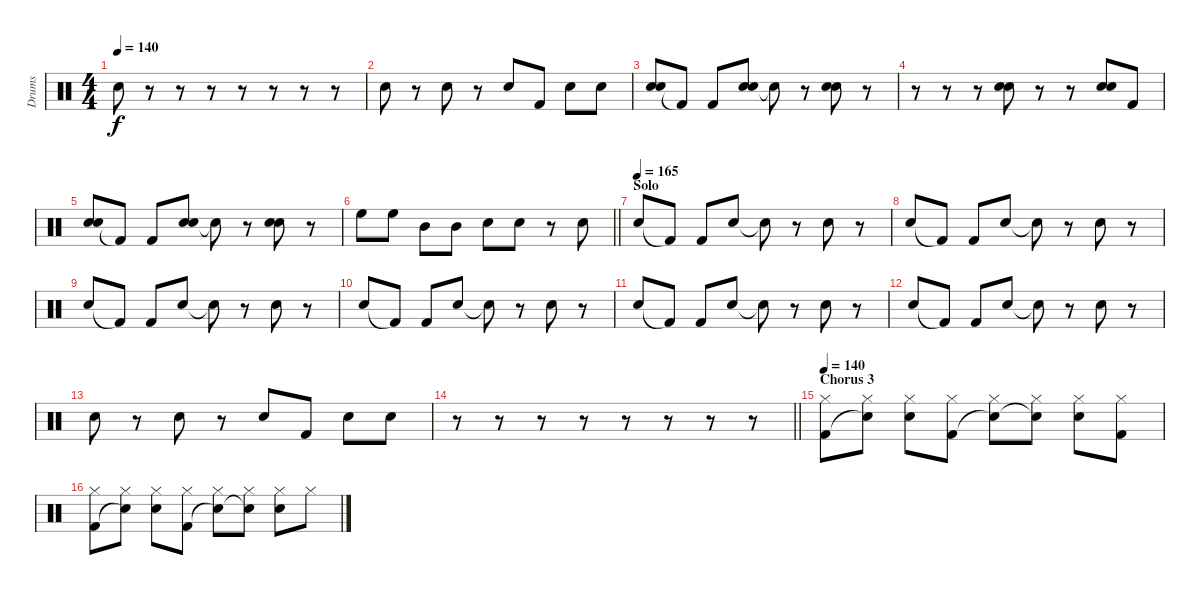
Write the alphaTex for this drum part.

\track ("Drums" "Drums") {instrument percussion}
\staff {score}
\articulation defaults
\ts (4 4)
\tempo 140
\clef neutral
\ks c "Snare (hit) 2".8{dy f}
r.8 r.8 r.8 r.8 r.8 r.8 r.8 |
"Snare (hit) 2".8 r.8 "Snare (hit) 2".8 r.8 "Snare (hit) 2".8 "Kick (hit) 2".8 "Snare (hit) 2".8 "Snare (hit) 2".8 |
("Snare (hit) 2" "Hand Clap (hit)").8 "Kick (hit) 2"{t}.8 "Kick (hit) 2".8 ("Snare (hit) 2" "Hand Clap (hit)").8 "Snare (hit)"{t}.8 r.8 ("Snare (hit) 2" "Hand Clap (hit)").8 r.8 |
r.8 r.8 r.8 ("Snare (hit) 2" "Hand Clap (hit)").8 r.8 r.8 ("Snare (hit) 2" "Hand Clap (hit)").8 "Kick (hit) 2".8 |
("Snare (hit) 2" "Hand Clap (hit)").8 "Kick (hit) 2"{t}.8 "Kick (hit) 2".8 ("Snare (hit) 2" "Hand Clap (hit)").8 "Snare (hit)"{t}.8 r.8 ("Snare (hit) 2" "Hand Clap (hit)").8 r.8 |
\barLineRight lightlight "High Floor Tom (hit)".8 "High Floor Tom (hit)".8 "Mid Tom (hit)".8 "Mid Tom (hit)".8 "Snare (hit) 2".8 "Snare (hit) 2".8
r.8 "Snare (hit) 2".8 |
\section ("" "Solo")
\tempo (165)
"Snare (hit) 2".8 "Kick (hit) 2"{t}.8 "Kick (hit) 2".8 "Snare (hit) 2".8 "Snare (hit)"{t}.8 r.8 "Snare (hit) 2".8 r.8 |
"Snare (hit) 2".8 "Kick (hit) 2"{t}.8 "Kick (hit) 2".8 "Snare (hit) 2".8 "Snare (hit)"{t}.8 r.8 "Snare (hit) 2".8 r.8 |
"Snare (hit) 2".8 "Kick (hit) 2"{t}.8 "Kick (hit) 2".8 "Snare (hit) 2".8 "Snare (hit)"{t}.8 r.8 "Snare (hit) 2".8 r.8 |
"Snare (hit) 2".8 "Kick (hit) 2"{t}.8 "Kick (hit) 2".8 "Snare (hit) 2".8 "Snare (hit)"{t}.8 r.8 "Snare (hit) 2".8 r.8 |
"Snare (hit) 2".8 "Kick (hit) 2"{t}.8 "Kick (hit) 2".8 "Snare (hit) 2".8 "Snare (hit)"{t}.8 r.8 "Snare (hit) 2".8 r.8 |
"Snare (hit) 2".8 "Kick (hit) 2"{t}.8 "Kick (hit) 2".8 "Snare (hit) 2".8 "Snare (hit)"{t}.8 r.8 "Snare (hit) 2".8 r.8 |
"Snare (hit) 2".8 r.8 "Snare (hit) 2".8 r.8 "Snare (hit) 2".8 "Kick (hit) 2".8 "Snare (hit) 2".8 "Snare (hit) 2".8 |
\barLineRight lightlight
r.8 r.8 r.8 r.8 r.8 r.8 r.8 r.8 |
\section ("" "Chorus 3")
\tempo 140
("Hi-Hat (closed)" "Kick (hit) 2").8 ("Hi-Hat (closed)" "Snare (hit)"{t}).8 ("Hi-Hat (closed)" "Snare (hit) 2").8 ("Hi-Hat (closed)" "Kick (hit) 2").8 ("Hi-Hat (closed)" "Snare (hit)"{t}).8 ("Hi-Hat (closed)" "Snare (hit) 2"{t}).8 ("Hi-Hat (closed)" "Snare (hit) 2").8 ("Hi-Hat (closed)" "Kick (hit) 2").8 |
("Hi-Hat (closed)" "Kick (hit) 2").8 ("Hi-Hat (closed)" "Snare (hit)"{t}).8 ("Hi-Hat (closed)" "Snare (hit) 2").8 ("Hi-Hat (closed)" "Kick (hit) 2").8 ("Hi-Hat (closed)" "Snare (hit)"{t}).8 ("Hi-Hat (closed)" "Snare (hit) 2"{t}).8 ("Hi-Hat (closed)" "Snare (hit) 2").8 "Hi-Hat (closed)".8
